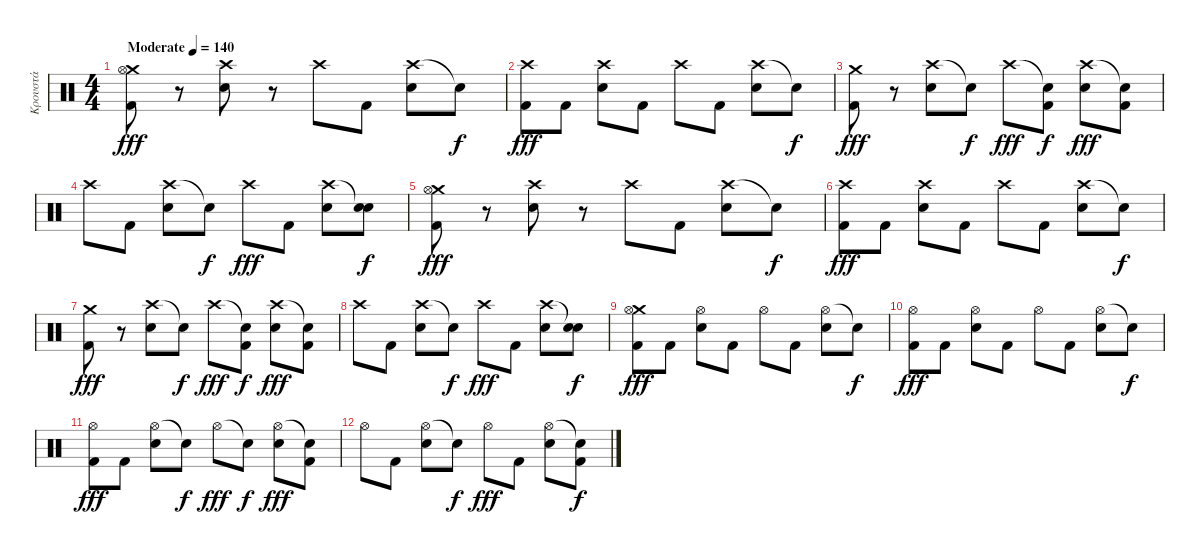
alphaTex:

\track ("Κρουστά" "Κρουστά") {instrument percussion}
\staff {score}
\articulation defaults
\ts (4 4)
\tempo (140 "Moderate")
\clef neutral
\ks c
("Crash medium (hit)" "Hi-Hat (open)" "Kick (hit) 2").8{dy fff} r.8 ("Crash high (hit)" "Snare (hit) 2").8 r.8 "Crash high (hit)".8 "Kick (hit) 2".8 ("Crash high (hit)" "Snare (hit) 2").8 "Snare (hit)"{t}.8{dy f} |
("Crash high (hit)" "Kick (hit) 2").8{dy fff} "Kick (hit) 2".8 ("Crash high (hit)" "Snare (hit) 2").8 "Kick (hit) 2".8 "Crash high (hit)".8 "Kick (hit) 2".8 ("Crash high (hit)" "Snare (hit) 2").8 "Snare (hit)"{t}.8{dy f} |
("Crash medium (hit)" "Kick (hit) 2").8{dy fff} r.8 ("Crash high (hit)" "Snare (hit) 2").8 "Snare (hit)"{t}.8{dy f} "Crash high (hit)".8{dy fff} ("Snare (hit)"{t} "Kick (hit) 2").8{dy f} ("Crash high (hit)" "Snare (hit) 2").8{dy fff} ("Snare (hit)"{t} "Kick (hit) 2").8 |
"Crash high (hit)".8 "Kick (hit) 2".8 ("Crash high (hit)" "Snare (hit) 2").8 "Snare (hit)"{t}.8{dy f} "Crash high (hit)".8{dy fff} "Kick (hit) 2".8 ("Crash high (hit)" "Snare (hit) 2").8 ("Snare (hit)"{t} "Snare (hit) 2").8{dy f} |
("Crash medium (hit)" "Hi-Hat (open)" "Kick (hit) 2").8{dy fff} r.8 ("Crash high (hit)" "Snare (hit) 2").8 r.8 "Crash high (hit)".8 "Kick (hit) 2".8 ("Crash high (hit)" "Snare (hit) 2").8 "Snare (hit)"{t}.8{dy f} |
("Crash high (hit)" "Kick (hit) 2").8{dy fff} "Kick (hit) 2".8 ("Crash high (hit)" "Snare (hit) 2").8 "Kick (hit) 2".8 "Crash high (hit)".8 "Kick (hit) 2".8 ("Crash high (hit)" "Snare (hit) 2").8 "Snare (hit)"{t}.8{dy f} |
("Crash medium (hit)" "Kick (hit) 2").8{dy fff} r.8 ("Crash high (hit)" "Snare (hit) 2").8 "Snare (hit)"{t}.8{dy f} "Crash high (hit)".8{dy fff} ("Snare (hit)"{t} "Kick (hit) 2").8{dy f} ("Crash high (hit)" "Snare (hit) 2").8{dy fff} ("Snare (hit)"{t} "Kick (hit) 2").8 |
"Crash high (hit)".8 "Kick (hit) 2".8 ("Crash high (hit)" "Snare (hit) 2").8 "Snare (hit)"{t}.8{dy f} "Crash high (hit)".8{dy fff} "Kick (hit) 2".8 ("Crash high (hit)" "Snare (hit) 2").8 ("Snare (hit)"{t} "Snare (hit) 2").8{dy f} |
("Crash medium (hit)" "Hi-Hat (open)" "Kick (hit) 2").8{dy fff} "Kick (hit) 2".8 ("Hi-Hat (open)" "Snare (hit) 2").8 "Kick (hit) 2".8 "Hi-Hat (open)".8 "Kick (hit) 2".8 ("Hi-Hat (open)" "Snare (hit) 2").8 "Snare (hit)"{t}.8{dy f} |
("Hi-Hat (open)" "Kick (hit) 2").8{dy fff} "Kick (hit) 2".8 ("Hi-Hat (open)" "Snare (hit) 2").8 "Kick (hit) 2".8 "Hi-Hat (open)".8 "Kick (hit) 2".8 ("Hi-Hat (open)" "Snare (hit) 2").8 "Snare (hit)"{t}.8{dy f} |
("Hi-Hat (open)" "Kick (hit) 2").8{dy fff} "Kick (hit) 2".8 ("Hi-Hat (open)" "Snare (hit) 2").8 "Snare (hit)"{t}.8{dy f} "Hi-Hat (open)".8{dy fff} "Snare (hit)"{t}.8{dy f} ("Hi-Hat (open)" "Snare (hit) 2").8{dy fff} ("Snare (hit)"{t} "Kick (hit) 2").8 |
"Hi-Hat (open)".8 "Kick (hit) 2".8 ("Hi-Hat (open)" "Snare (hit) 2").8 "Snare (hit)"{t}.8{dy f} "Hi-Hat (open)".8{dy fff} "Kick (hit) 2".8 ("Hi-Hat (open)" "Snare (hit) 2").8 ("Snare (hit)"{t} "Kick (hit) 2").8{dy f}
